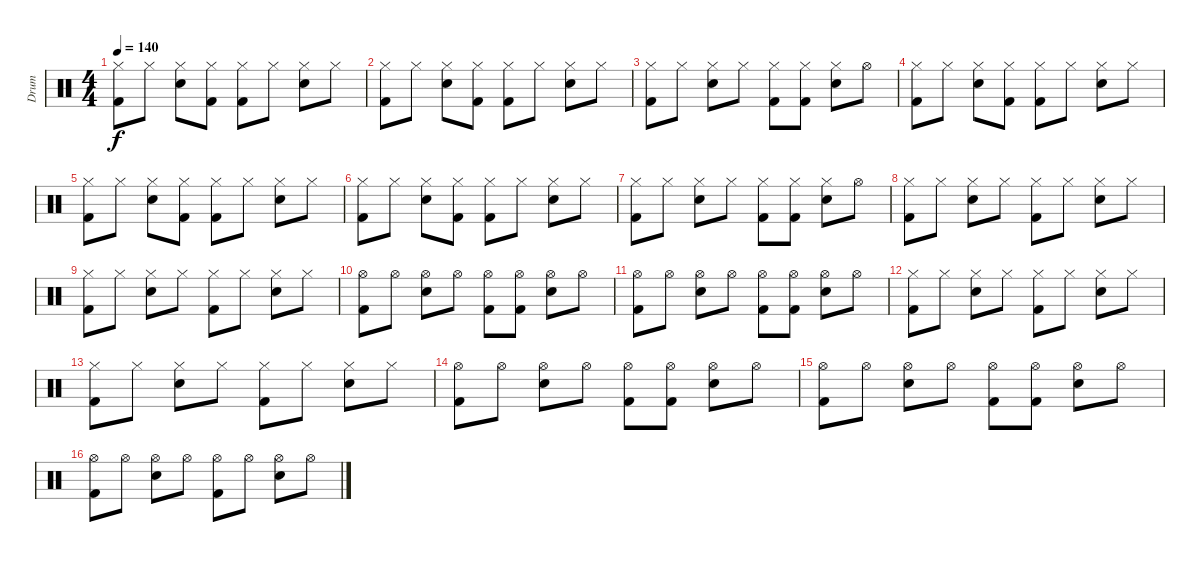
\track ("Drum" "Drum") {instrument percussion}
\staff {score}
\articulation defaults
\ts (4 4)
\tempo 140
\clef neutral
\ks c
("Hi-Hat (closed)" "Kick (hit) 2").8{dy f} "Hi-Hat (closed)".8 ("Hi-Hat (closed)" "Electric Snare (hit)").8 ("Hi-Hat (closed)" "Kick (hit) 2").8 ("Hi-Hat (closed)" "Kick (hit) 2").8 "Hi-Hat (closed)".8 ("Hi-Hat (closed)" "Electric Snare (hit)").8 "Hi-Hat (closed)".8 |
("Hi-Hat (closed)" "Kick (hit) 2").8 "Hi-Hat (closed)".8 ("Hi-Hat (closed)" "Electric Snare (hit)").8 ("Hi-Hat (closed)" "Kick (hit) 2").8 ("Hi-Hat (closed)" "Kick (hit) 2").8 "Hi-Hat (closed)".8 ("Hi-Hat (closed)" "Electric Snare (hit)").8 "Hi-Hat (closed)".8 |
("Hi-Hat (closed)" "Kick (hit) 2").8 "Hi-Hat (closed)".8 ("Hi-Hat (closed)" "Electric Snare (hit)").8 "Hi-Hat (closed)".8 ("Hi-Hat (closed)" "Kick (hit) 2").8 ("Hi-Hat (closed)" "Kick (hit) 2").8 ("Hi-Hat (closed)" "Electric Snare (hit)").8 "Hi-Hat (open)".8 |
("Hi-Hat (closed)" "Kick (hit) 2").8 "Hi-Hat (closed)".8 ("Hi-Hat (closed)" "Electric Snare (hit)").8 ("Hi-Hat (closed)" "Kick (hit) 2").8 ("Hi-Hat (closed)" "Kick (hit) 2").8 "Hi-Hat (closed)".8 ("Hi-Hat (closed)" "Electric Snare (hit)").8 "Hi-Hat (closed)".8 |
("Hi-Hat (closed)" "Kick (hit) 2").8 "Hi-Hat (closed)".8 ("Hi-Hat (closed)" "Electric Snare (hit)").8 ("Hi-Hat (closed)" "Kick (hit) 2").8 ("Hi-Hat (closed)" "Kick (hit) 2").8 "Hi-Hat (closed)".8 ("Hi-Hat (closed)" "Electric Snare (hit)").8 "Hi-Hat (closed)".8 |
("Hi-Hat (closed)" "Kick (hit) 2").8 "Hi-Hat (closed)".8 ("Hi-Hat (closed)" "Electric Snare (hit)").8 ("Hi-Hat (closed)" "Kick (hit) 2").8 ("Hi-Hat (closed)" "Kick (hit) 2").8 "Hi-Hat (closed)".8 ("Hi-Hat (closed)" "Electric Snare (hit)").8 "Hi-Hat (closed)".8 |
("Hi-Hat (closed)" "Kick (hit) 2").8 "Hi-Hat (closed)".8 ("Hi-Hat (closed)" "Electric Snare (hit)").8 "Hi-Hat (closed)".8 ("Hi-Hat (closed)" "Kick (hit) 2").8 ("Hi-Hat (closed)" "Kick (hit) 2").8 ("Hi-Hat (closed)" "Electric Snare (hit)").8 "Hi-Hat (open)".8 |
("Hi-Hat (closed)" "Kick (hit) 2").8 "Hi-Hat (closed)".8 ("Hi-Hat (closed)" "Electric Snare (hit)").8 "Hi-Hat (closed)".8 ("Hi-Hat (closed)" "Kick (hit) 2").8 "Hi-Hat (closed)".8 ("Hi-Hat (closed)" "Electric Snare (hit)").8 "Hi-Hat (closed)".8 |
("Hi-Hat (closed)" "Kick (hit) 2").8 "Hi-Hat (closed)".8 ("Hi-Hat (closed)" "Electric Snare (hit)").8 "Hi-Hat (closed)".8 ("Hi-Hat (closed)" "Kick (hit) 2").8 "Hi-Hat (closed)".8 ("Hi-Hat (closed)" "Electric Snare (hit)").8 "Hi-Hat (closed)".8 |
("Hi-Hat (open)" "Kick (hit) 2").8 "Hi-Hat (open)".8 ("Hi-Hat (open)" "Electric Snare (hit)").8 "Hi-Hat (open)".8 ("Hi-Hat (open)" "Kick (hit) 2").8 ("Hi-Hat (open)" "Kick (hit) 2").8 ("Hi-Hat (open)" "Electric Snare (hit)").8 "Hi-Hat (open)".8 |
("Hi-Hat (open)" "Kick (hit) 2").8 "Hi-Hat (open)".8 ("Hi-Hat (open)" "Electric Snare (hit)").8 "Hi-Hat (open)".8 ("Hi-Hat (open)" "Kick (hit) 2").8 ("Hi-Hat (open)" "Kick (hit) 2").8 ("Hi-Hat (open)" "Electric Snare (hit)").8 "Hi-Hat (open)".8 |
("Hi-Hat (closed)" "Kick (hit) 2").8 "Hi-Hat (closed)".8 ("Hi-Hat (closed)" "Electric Snare (hit)").8 "Hi-Hat (closed)".8 ("Hi-Hat (closed)" "Kick (hit) 2").8 "Hi-Hat (closed)".8 ("Hi-Hat (closed)" "Electric Snare (hit)").8 "Hi-Hat (closed)".8 |
("Hi-Hat (closed)" "Kick (hit) 2").8 "Hi-Hat (closed)".8 ("Hi-Hat (closed)" "Electric Snare (hit)").8 "Hi-Hat (closed)".8 ("Hi-Hat (closed)" "Kick (hit) 2").8 "Hi-Hat (closed)".8 ("Hi-Hat (closed)" "Electric Snare (hit)").8 "Hi-Hat (closed)".8 |
("Hi-Hat (open)" "Kick (hit) 2").8 "Hi-Hat (open)".8 ("Hi-Hat (open)" "Electric Snare (hit)").8 "Hi-Hat (open)".8 ("Hi-Hat (open)" "Kick (hit) 2").8 ("Hi-Hat (open)" "Kick (hit) 2").8 ("Hi-Hat (open)" "Electric Snare (hit)").8 "Hi-Hat (open)".8 |
("Hi-Hat (open)" "Kick (hit) 2").8 "Hi-Hat (open)".8 ("Hi-Hat (open)" "Electric Snare (hit)").8 "Hi-Hat (open)".8 ("Hi-Hat (open)" "Kick (hit) 2").8 ("Hi-Hat (open)" "Kick (hit) 2").8 ("Hi-Hat (open)" "Electric Snare (hit)").8 "Hi-Hat (open)".8 |
("Hi-Hat (open)" "Kick (hit) 2").8 "Hi-Hat (open)".8 ("Hi-Hat (open)" "Electric Snare (hit)").8 "Hi-Hat (open)".8 ("Hi-Hat (open)" "Kick (hit) 2").8 "Hi-Hat (open)".8 ("Hi-Hat (open)" "Electric Snare (hit)").8 "Hi-Hat (open)".8
